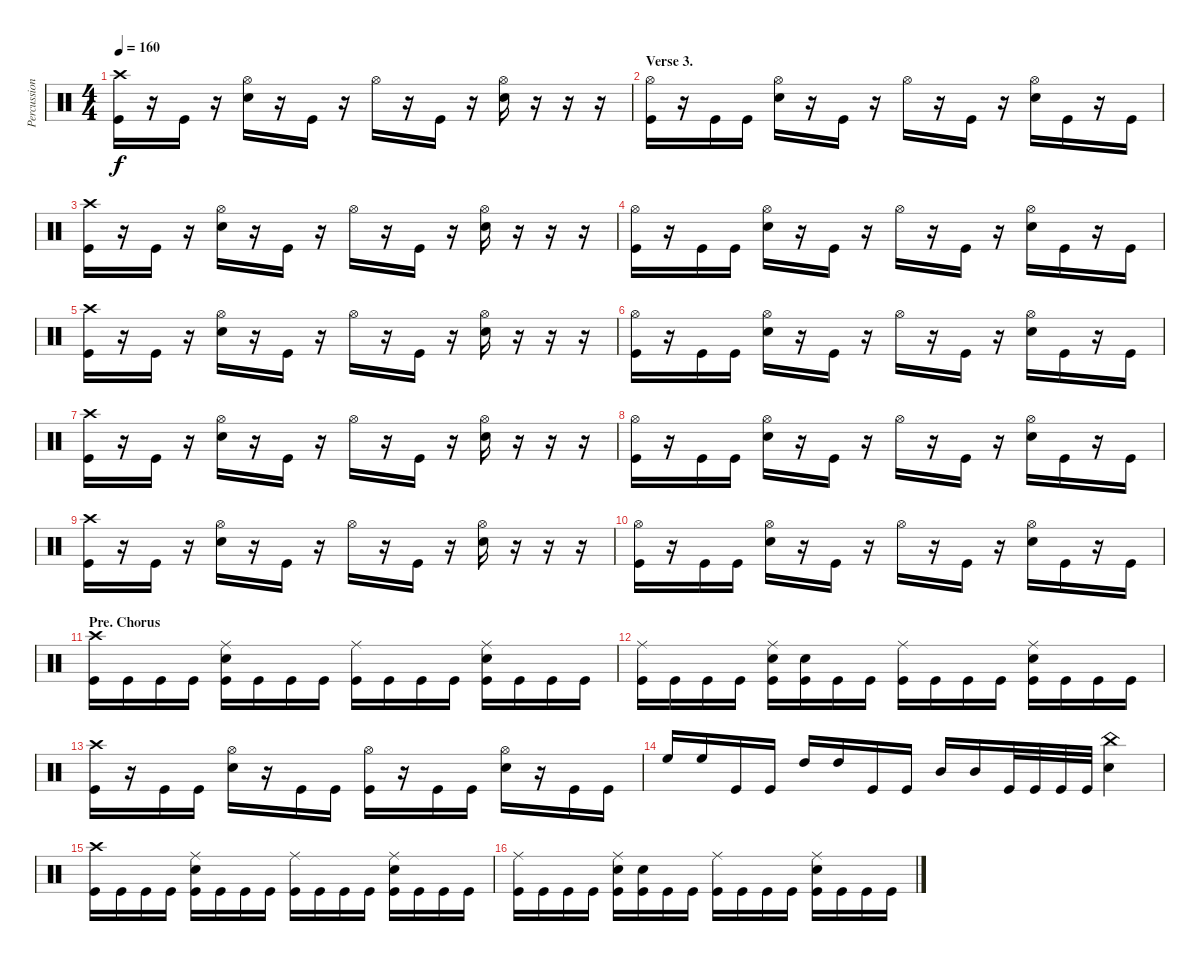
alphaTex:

\track ("Percussion" "Percussion") {instrument percussion}
\staff {score}
\articulation defaults
\ts (4 4)
\tempo 160
\clef neutral
\ks c
("Crash high (hit)" "Kick (hit)").16{dy f} r.16 "Kick (hit)".16 r.16 ("Hi-Hat (open)" "Electric Snare (hit)").16 r.16 "Kick (hit)".16 r.16 "Hi-Hat (open)".16 r.16 "Kick (hit)".16 r.16 ("Hi-Hat (open)" "Electric Snare (hit)").16 r.16 r.16 r.16 |
\section ("" "Verse 3.")
("Hi-Hat (open)" "Kick (hit)").16 r.16 "Kick (hit)".16 "Kick (hit)".16 ("Hi-Hat (open)" "Electric Snare (hit)").16 r.16 "Kick (hit)".16 r.16 "Hi-Hat (open)".16 r.16 "Kick (hit)".16 r.16 ("Hi-Hat (open)" "Electric Snare (hit)").16 "Kick (hit)".16 r.16 "Kick (hit)".16 |
("Crash high (hit)" "Kick (hit)").16 r.16 "Kick (hit)".16 r.16 ("Hi-Hat (open)" "Electric Snare (hit)").16 r.16 "Kick (hit)".16 r.16 "Hi-Hat (open)".16 r.16 "Kick (hit)".16 r.16 ("Hi-Hat (open)" "Electric Snare (hit)").16 r.16 r.16 r.16 |
("Hi-Hat (open)" "Kick (hit)").16 r.16 "Kick (hit)".16 "Kick (hit)".16 ("Hi-Hat (open)" "Electric Snare (hit)").16 r.16 "Kick (hit)".16 r.16 "Hi-Hat (open)".16 r.16 "Kick (hit)".16 r.16 ("Hi-Hat (open)" "Electric Snare (hit)").16 "Kick (hit)".16 r.16 "Kick (hit)".16 |
("Crash high (hit)" "Kick (hit)").16 r.16 "Kick (hit)".16 r.16 ("Hi-Hat (open)" "Electric Snare (hit)").16 r.16 "Kick (hit)".16 r.16 "Hi-Hat (open)".16 r.16 "Kick (hit)".16 r.16 ("Hi-Hat (open)" "Electric Snare (hit)").16 r.16 r.16 r.16 |
("Hi-Hat (open)" "Kick (hit)").16 r.16 "Kick (hit)".16 "Kick (hit)".16 ("Hi-Hat (open)" "Electric Snare (hit)").16 r.16 "Kick (hit)".16 r.16 "Hi-Hat (open)".16 r.16 "Kick (hit)".16 r.16 ("Hi-Hat (open)" "Electric Snare (hit)").16 "Kick (hit)".16 r.16 "Kick (hit)".16 |
("Crash high (hit)" "Kick (hit)").16 r.16 "Kick (hit)".16 r.16 ("Hi-Hat (open)" "Electric Snare (hit)").16 r.16 "Kick (hit)".16 r.16 "Hi-Hat (open)".16 r.16 "Kick (hit)".16 r.16 ("Hi-Hat (open)" "Electric Snare (hit)").16 r.16 r.16 r.16 |
("Hi-Hat (open)" "Kick (hit)").16 r.16 "Kick (hit)".16 "Kick (hit)".16 ("Hi-Hat (open)" "Electric Snare (hit)").16 r.16 "Kick (hit)".16 r.16 "Hi-Hat (open)".16 r.16 "Kick (hit)".16 r.16 ("Hi-Hat (open)" "Electric Snare (hit)").16 "Kick (hit)".16 r.16 "Kick (hit)".16 |
("Crash high (hit)" "Kick (hit)").16 r.16 "Kick (hit)".16 r.16 ("Hi-Hat (open)" "Electric Snare (hit)").16 r.16 "Kick (hit)".16 r.16 "Hi-Hat (open)".16 r.16 "Kick (hit)".16 r.16 ("Hi-Hat (open)" "Electric Snare (hit)").16 r.16 r.16 r.16 |
("Hi-Hat (open)" "Kick (hit)").16 r.16 "Kick (hit)".16 "Kick (hit)".16 ("Hi-Hat (open)" "Electric Snare (hit)").16 r.16 "Kick (hit)".16 r.16 "Hi-Hat (open)".16 r.16 "Kick (hit)".16 r.16 ("Hi-Hat (open)" "Electric Snare (hit)").16 "Kick (hit)".16 r.16 "Kick (hit)".16 |
\section ("" "Pre. Chorus")
("Crash high (hit)" "Kick (hit)").16 "Kick (hit)".16 "Kick (hit)".16 "Kick (hit)".16 ("Ride (middle)" "Electric Snare (hit)" "Kick (hit)").16 "Kick (hit)".16 "Kick (hit)".16 "Kick (hit)".16 ("Ride (middle)" "Kick (hit)").16 "Kick (hit)".16 "Kick (hit)".16 "Kick (hit)".16 ("Ride (middle)" "Electric Snare (hit)" "Kick (hit)").16 "Kick (hit)".16 "Kick (hit)".16 "Kick (hit)".16 |
("Ride (middle)" "Kick (hit)").16 "Kick (hit)".16 "Kick (hit)".16 "Kick (hit)".16 ("Ride (middle)" "Electric Snare (hit)" "Kick (hit)").16 ("Electric Snare (hit)" "Kick (hit)").16 "Kick (hit)".16 "Kick (hit)".16 ("Ride (middle)" "Kick (hit)").16 "Kick (hit)".16 "Kick (hit)".16 "Kick (hit)".16 ("Ride (middle)" "Electric Snare (hit)" "Kick (hit)").16 "Kick (hit)".16 "Kick (hit)".16 "Kick (hit)".16 |
("Crash high (hit)" "Kick (hit)").16 r.16 "Kick (hit)".16 "Kick (hit)".16 ("Hi-Hat (open)" "Electric Snare (hit)").16 r.16 "Kick (hit)".16 "Kick (hit)".16 ("Hi-Hat (open)" "Kick (hit)").16 r.16 "Kick (hit)".16 "Kick (hit)".16 ("Hi-Hat (open)" "Electric Snare (hit)").16 r.16 "Kick (hit)".16 "Kick (hit)".16 |
"High Floor Tom (hit)".16 "High Floor Tom (hit)".16 "Kick (hit)".16 "Kick (hit)".16 "High Tom (hit)".16 "High Tom (hit)".16 "Kick (hit)".16 "Kick (hit)".16 "Mid Tom (hit)".16 "Mid Tom (hit)".16 "Kick (hit)".32 "Kick (hit)".32 "Kick (hit)".32 "Kick (hit)".32 ("China (hit)" "Electric Snare (hit)").4 |
("Crash high (hit)" "Kick (hit)").16 "Kick (hit)".16 "Kick (hit)".16 "Kick (hit)".16 ("Ride (middle)" "Electric Snare (hit)" "Kick (hit)").16 "Kick (hit)".16 "Kick (hit)".16 "Kick (hit)".16 ("Ride (middle)" "Kick (hit)").16 "Kick (hit)".16 "Kick (hit)".16 "Kick (hit)".16 ("Ride (middle)" "Electric Snare (hit)" "Kick (hit)").16 "Kick (hit)".16 "Kick (hit)".16 "Kick (hit)".16 |
("Ride (middle)" "Kick (hit)").16 "Kick (hit)".16 "Kick (hit)".16 "Kick (hit)".16 ("Ride (middle)" "Electric Snare (hit)" "Kick (hit)").16 ("Electric Snare (hit)" "Kick (hit)").16 "Kick (hit)".16 "Kick (hit)".16 ("Ride (middle)" "Kick (hit)").16 "Kick (hit)".16 "Kick (hit)".16 "Kick (hit)".16 ("Ride (middle)" "Electric Snare (hit)" "Kick (hit)").16 "Kick (hit)".16 "Kick (hit)".16 "Kick (hit)".16
